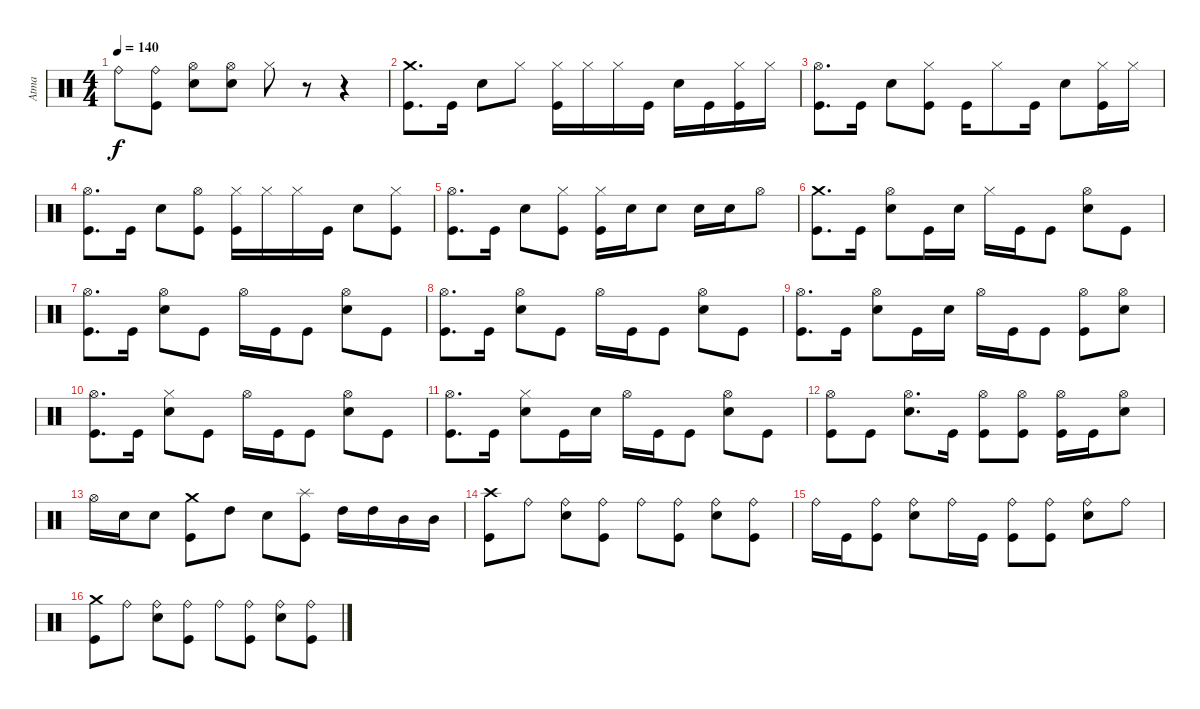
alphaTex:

\track ("Atma" "Atma") {instrument percussion}
\staff {score}
\articulation defaults
\ts (4 4)
\tempo 140
\clef neutral
\ks c "Ride (bell)".8{dy f}
("Kick (hit)" "Ride (bell)").8 ("Snare (hit) 2" "Hi-Hat (open)").8 ("Snare (hit) 2" "Hi-Hat (open)").8 "Hi-Hat (closed)".8 r.8 r.4 |
("Kick (hit)" "Crash medium (hit)").8{d} "Kick (hit)".16 "Snare (hit) 2".8 "Hi-Hat (closed)".8 ("Kick (hit)" "Hi-Hat (closed)").16 "Hi-Hat (closed)".16 "Hi-Hat (closed)".16 "Kick (hit)".16 "Snare (hit) 2".16 "Kick (hit)".16 ("Kick (hit)" "Hi-Hat (closed)").16 "Hi-Hat (closed)".16 |
("Kick (hit)" "Hi-Hat (open)").8{d} "Kick (hit)".16 "Snare (hit) 2".8 ("Kick (hit)" "Hi-Hat (closed)").8 "Kick (hit)".16 "Hi-Hat (closed)".8 "Kick (hit)".16 "Snare (hit) 2".8 ("Kick (hit)" "Hi-Hat (closed)").16 "Hi-Hat (closed)".16 |
("Kick (hit)" "Hi-Hat (open)").8{d} "Kick (hit)".16 "Snare (hit) 2".8 ("Kick (hit)" "Hi-Hat (open)").8 ("Kick (hit)" "Hi-Hat (closed)").16 "Hi-Hat (closed)".16 "Hi-Hat (closed)".16 "Kick (hit)".16 "Snare (hit) 2".8 ("Kick (hit)" "Hi-Hat (closed)").8 |
("Kick (hit)" "Hi-Hat (open)").8{d} "Kick (hit)".16 "Snare (hit) 2".8 ("Kick (hit)" "Hi-Hat (closed)").8 ("Kick (hit)" "Hi-Hat (closed)").16 "Snare (hit) 2".16 "Snare (hit) 2".8 "Snare (hit) 2".16 "Snare (hit) 2".16 "Hi-Hat (open)".8 |
("Kick (hit)" "Crash medium (hit)").8{d} "Kick (hit)".16 ("Snare (hit) 2" "Hi-Hat (open)").8 "Kick (hit)".16 "Snare (hit) 2".16 "Hi-Hat (closed)".16 "Kick (hit)".16 "Kick (hit)".8 ("Snare (hit) 2" "Hi-Hat (open)").8 "Kick (hit)".8 |
("Kick (hit)" "Hi-Hat (open)").8{d} "Kick (hit)".16 ("Snare (hit) 2" "Hi-Hat (open)").8 "Kick (hit)".8 "Hi-Hat (open)".16 "Kick (hit)".16 "Kick (hit)".8 ("Snare (hit) 2" "Hi-Hat (open)").8 "Kick (hit)".8 |
("Kick (hit)" "Hi-Hat (open)").8{d} "Kick (hit)".16 ("Snare (hit) 2" "Hi-Hat (open)").8 "Kick (hit)".8 "Hi-Hat (open)".16 "Kick (hit)".16 "Kick (hit)".8 ("Snare (hit) 2" "Hi-Hat (open)").8 "Kick (hit)".8 |
("Kick (hit)" "Hi-Hat (open)").8{d} "Kick (hit)".16 ("Snare (hit) 2" "Hi-Hat (open)").8 "Kick (hit)".16 "Snare (hit) 2".16 "Hi-Hat (open)".16 "Kick (hit)".16 "Kick (hit)".8 ("Kick (hit)" "Hi-Hat (open)").8 ("Snare (hit) 2" "Hi-Hat (open)").8 |
("Kick (hit)" "Hi-Hat (open)").8{d} "Kick (hit)".16 ("Snare (hit) 2" "Hi-Hat (closed)").8 "Kick (hit)".8 "Hi-Hat (open)".16 "Kick (hit)".16 "Kick (hit)".8 ("Snare (hit) 2" "Hi-Hat (open)").8 "Kick (hit)".8 |
("Kick (hit)" "Hi-Hat (open)").8{d} "Kick (hit)".16 ("Snare (hit) 2" "Hi-Hat (closed)").8 "Kick (hit)".16 "Snare (hit) 2".16 "Hi-Hat (open)".16 "Kick (hit)".16 "Kick (hit)".8 ("Snare (hit) 2" "Hi-Hat (open)").8 "Kick (hit)".8 |
("Kick (hit)" "Hi-Hat (open)").8 "Kick (hit)".8 ("Snare (hit) 2" "Hi-Hat (open)").8{d} "Kick (hit)".16 ("Kick (hit)" "Hi-Hat (open)").8 ("Kick (hit)" "Hi-Hat (open)").8 ("Kick (hit)" "Hi-Hat (open)").16 "Kick (hit)".16 ("Snare (hit) 2" "Hi-Hat (open)").8 |
"Hi-Hat (open)".16 "Snare (hit) 2".16 "Snare (hit) 2".8 ("Kick (hit)" "Crash medium (hit)").8 "High Tom (hit)".8 "Snare (hit) 2".8 ("Kick (hit)" "Splash (hit)").8 "High Tom (hit)".16 "High Tom (hit)".16 "Mid Tom (hit)".16 "Mid Tom (hit)".16 |
("Kick (hit)" "Crash high (hit)").8 "Ride (bell)".8 ("Snare (hit) 2" "Ride (bell)").8 ("Kick (hit)" "Ride (bell)").8 "Ride (bell)".8 ("Kick (hit)" "Ride (bell)").8 ("Snare (hit) 2" "Ride (bell)").8 ("Kick (hit)" "Ride (bell)").8 |
"Ride (bell)".16 "Kick (hit)".16 ("Kick (hit)" "Ride (bell)").8 ("Snare (hit) 2" "Ride (bell)").8 "Ride (bell)".16 "Kick (hit)".16 ("Kick (hit)" "Ride (bell)").8 ("Kick (hit)" "Ride (bell)").8 ("Snare (hit) 2" "Ride (bell)").8 "Ride (bell)".8 |
("Kick (hit)" "Crash medium (hit)").8 "Ride (bell)".8 ("Snare (hit) 2" "Ride (bell)").8 ("Kick (hit)" "Ride (bell)").8 "Ride (bell)".8 ("Kick (hit)" "Ride (bell)").8 ("Snare (hit) 2" "Ride (bell)").8 ("Kick (hit)" "Ride (bell)").8
